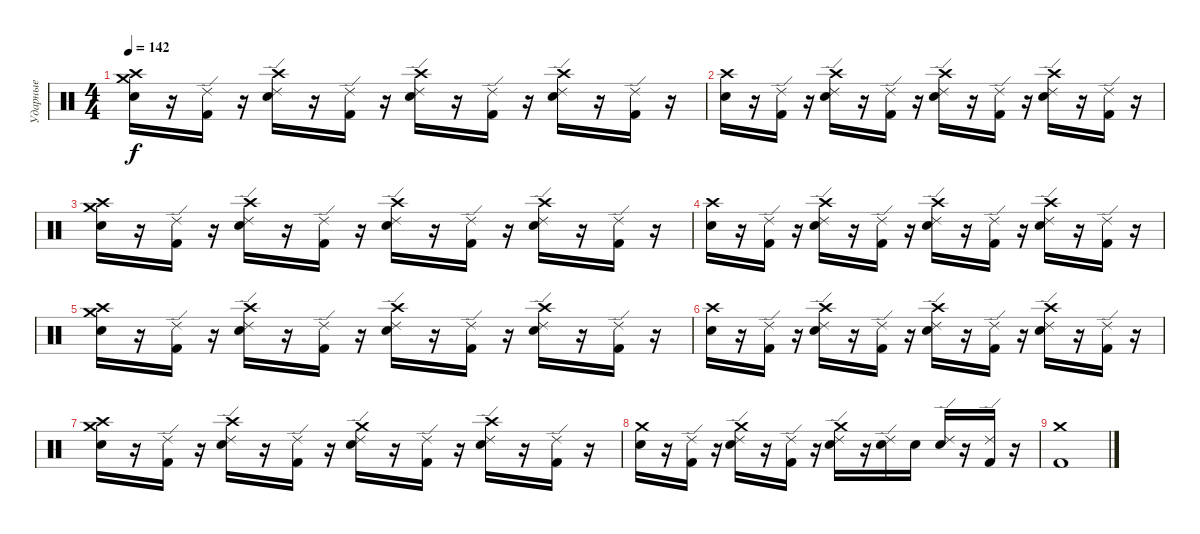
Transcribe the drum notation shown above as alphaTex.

\track ("Ударные" "Ударные") {instrument percussion}
\staff {score}
\articulation defaults
\ts (4 4)
\tempo 142
\clef neutral
\ks c
("Crash high (hit)" "Crash medium (hit)" "Electric Snare (hit)").16{dy f} r.16 ("Ride (edge) 2" "Kick (hit) 2").16 r.16 ("Crash high (hit)" "Ride (edge) 2" "Electric Snare (hit)").16 r.16 ("Ride (edge) 2" "Kick (hit) 2").16 r.16 ("Crash high (hit)" "Ride (edge) 2" "Electric Snare (hit)").16 r.16 ("Ride (edge) 2" "Kick (hit) 2").16 r.16 ("Crash high (hit)" "Ride (edge) 2" "Electric Snare (hit)").16 r.16 ("Ride (edge) 2" "Kick (hit) 2").16 r.16 |
("Crash high (hit)" "Electric Snare (hit)").16 r.16 ("Ride (edge) 2" "Kick (hit) 2").16 r.16 ("Crash high (hit)" "Ride (edge) 2" "Electric Snare (hit)").16 r.16 ("Ride (edge) 2" "Kick (hit) 2").16 r.16 ("Crash high (hit)" "Ride (edge) 2" "Electric Snare (hit)").16 r.16 ("Ride (edge) 2" "Kick (hit) 2").16 r.16 ("Crash high (hit)" "Ride (edge) 2" "Electric Snare (hit)").16 r.16 ("Ride (edge) 2" "Kick (hit) 2").16 r.16 |
("Crash high (hit)" "Crash medium (hit)" "Electric Snare (hit)").16 r.16 ("Ride (edge) 2" "Kick (hit) 2").16 r.16 ("Crash high (hit)" "Ride (edge) 2" "Electric Snare (hit)").16 r.16 ("Ride (edge) 2" "Kick (hit) 2").16 r.16 ("Crash high (hit)" "Ride (edge) 2" "Electric Snare (hit)").16 r.16 ("Ride (edge) 2" "Kick (hit) 2").16 r.16 ("Crash high (hit)" "Ride (edge) 2" "Electric Snare (hit)").16 r.16 ("Ride (edge) 2" "Kick (hit) 2").16 r.16 |
("Crash high (hit)" "Electric Snare (hit)").16 r.16 ("Ride (edge) 2" "Kick (hit) 2").16 r.16 ("Crash high (hit)" "Ride (edge) 2" "Electric Snare (hit)").16 r.16 ("Ride (edge) 2" "Kick (hit) 2").16 r.16 ("Crash high (hit)" "Ride (edge) 2" "Electric Snare (hit)").16 r.16 ("Ride (edge) 2" "Kick (hit) 2").16 r.16 ("Crash high (hit)" "Ride (edge) 2" "Electric Snare (hit)").16 r.16 ("Ride (edge) 2" "Kick (hit) 2").16 r.16 |
("Crash high (hit)" "Crash medium (hit)" "Electric Snare (hit)").16 r.16 ("Ride (edge) 2" "Kick (hit) 2").16 r.16 ("Crash high (hit)" "Ride (edge) 2" "Electric Snare (hit)").16 r.16 ("Ride (edge) 2" "Kick (hit) 2").16 r.16 ("Crash high (hit)" "Ride (edge) 2" "Electric Snare (hit)").16 r.16 ("Ride (edge) 2" "Kick (hit) 2").16 r.16 ("Crash high (hit)" "Ride (edge) 2" "Electric Snare (hit)").16 r.16 ("Ride (edge) 2" "Kick (hit) 2").16 r.16 |
("Crash high (hit)" "Electric Snare (hit)").16 r.16 ("Ride (edge) 2" "Kick (hit) 2").16 r.16 ("Crash high (hit)" "Ride (edge) 2" "Electric Snare (hit)").16 r.16 ("Ride (edge) 2" "Kick (hit) 2").16 r.16 ("Crash high (hit)" "Ride (edge) 2" "Electric Snare (hit)").16 r.16 ("Ride (edge) 2" "Kick (hit) 2").16 r.16 ("Crash high (hit)" "Ride (edge) 2" "Electric Snare (hit)").16 r.16 ("Ride (edge) 2" "Kick (hit) 2").16 r.16 |
("Crash high (hit)" "Crash medium (hit)" "Electric Snare (hit)").16 r.16 ("Ride (edge) 2" "Kick (hit) 2").16 r.16 ("Crash high (hit)" "Ride (edge) 2" "Electric Snare (hit)").16 r.16 ("Ride (edge) 2" "Kick (hit) 2").16 r.16 ("Crash medium (hit)" "Ride (edge) 2" "Electric Snare (hit)").16 r.16 ("Ride (edge) 2" "Kick (hit) 2").16 r.16 ("Crash high (hit)" "Ride (edge) 2" "Electric Snare (hit)").16 r.16 ("Ride (edge) 2" "Kick (hit) 2").16 r.16 |
("Crash medium (hit)" "Electric Snare (hit)").16 r.16 ("Ride (edge) 2" "Kick (hit) 2").16 r.16 ("Crash medium (hit)" "Ride (edge) 2" "Electric Snare (hit)").16 r.16 ("Ride (edge) 2" "Kick (hit) 2").16 r.16 ("Crash medium (hit)" "Ride (edge) 2" "Electric Snare (hit)").16 r.16 ("Ride (edge) 2" "Electric Snare (hit)").16 "Electric Snare (hit)".16 ("Ride (edge) 2" "Electric Snare (hit)").16 r.16 ("Ride (edge) 2" "Kick (hit) 2").16 r.16 |
("Crash medium (hit)" "Kick (hit) 2").1
